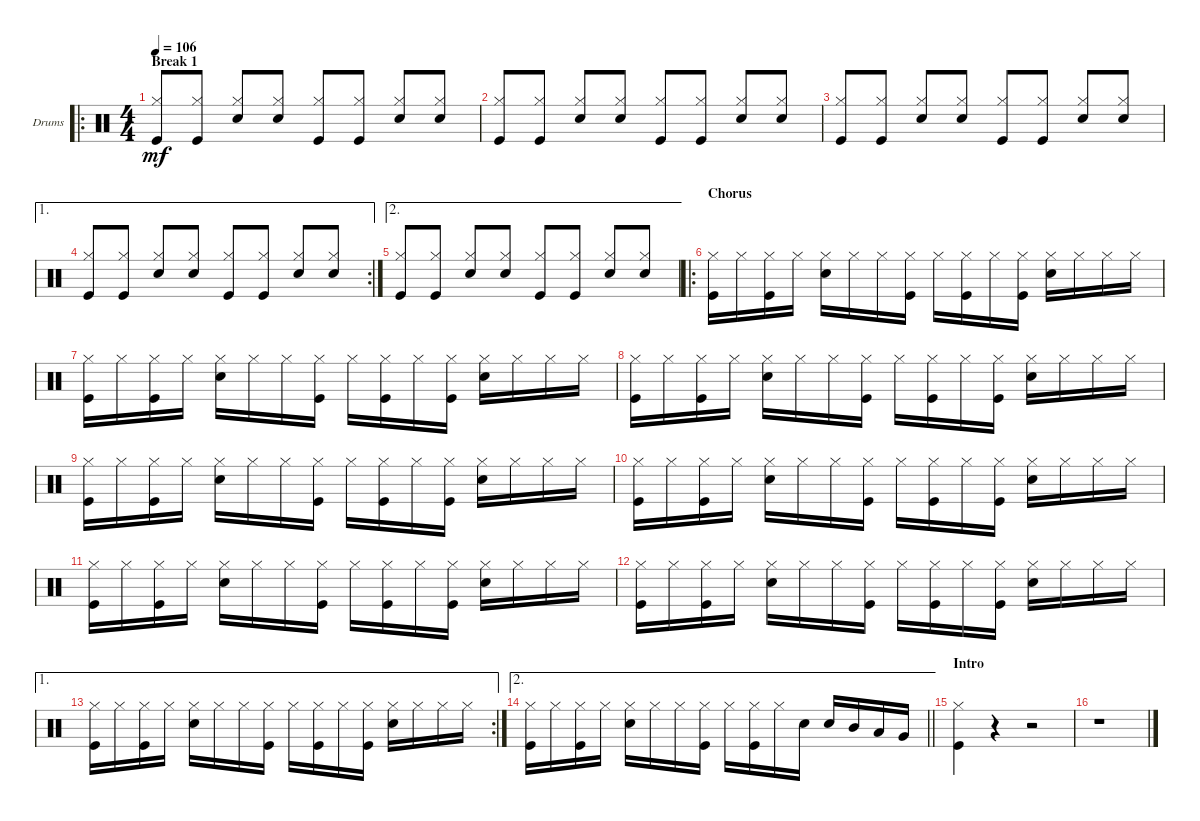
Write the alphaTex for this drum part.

\defaultSystemsLayout 4
\bracketExtendMode groupsimilarinstruments
\firstSystemTrackNameOrientation horizontal
\otherSystemsTrackNameOrientation horizontal
\track ("Drums" "Drums") {instrument percussion}
\staff {score}
\articulation defaults
\ro
\ts (4 4)
\section ("" "Break 1")
\tempo 106
\clef neutral
\ks c
("Hi-Hat (closed)" "Kick (hit)").8{dy mf beam invert} ("Hi-Hat (closed)" "Kick (hit)").8 ("Hi-Hat (closed)" "Snare (hit) 2").8{beam invert} ("Hi-Hat (closed)" "Snare (hit) 2").8 ("Hi-Hat (closed)" "Kick (hit)").8{beam invert} ("Hi-Hat (closed)" "Kick (hit)").8 ("Hi-Hat (closed)" "Snare (hit) 2").8{beam invert} ("Hi-Hat (closed)" "Snare (hit) 2").8 |
("Hi-Hat (closed)" "Kick (hit)").8{beam invert} ("Hi-Hat (closed)" "Kick (hit)").8 ("Hi-Hat (closed)" "Snare (hit) 2").8{beam invert} ("Hi-Hat (closed)" "Snare (hit) 2").8 ("Hi-Hat (closed)" "Kick (hit)").8{beam invert} ("Hi-Hat (closed)" "Kick (hit)").8 ("Hi-Hat (closed)" "Snare (hit) 2").8{beam invert} ("Hi-Hat (closed)" "Snare (hit) 2").8 |
("Hi-Hat (closed)" "Kick (hit)").8{beam invert} ("Hi-Hat (closed)" "Kick (hit)").8 ("Hi-Hat (closed)" "Snare (hit) 2").8{beam invert} ("Hi-Hat (closed)" "Snare (hit) 2").8 ("Hi-Hat (closed)" "Kick (hit)").8{beam invert} ("Hi-Hat (closed)" "Kick (hit)").8 ("Hi-Hat (closed)" "Snare (hit) 2").8{beam invert} ("Hi-Hat (closed)" "Snare (hit) 2").8 |
\ae 1
\rc 2
("Hi-Hat (closed)" "Kick (hit)").8{beam invert} ("Hi-Hat (closed)" "Kick (hit)").8 ("Hi-Hat (closed)" "Snare (hit) 2").8{beam invert} ("Hi-Hat (closed)" "Snare (hit) 2").8 ("Hi-Hat (closed)" "Kick (hit)").8{beam invert} ("Hi-Hat (closed)" "Kick (hit)").8 ("Hi-Hat (closed)" "Snare (hit) 2").8{beam invert} ("Hi-Hat (closed)" "Snare (hit) 2").8 |
\ae 2
("Hi-Hat (closed)" "Kick (hit)").8{beam invert} ("Hi-Hat (closed)" "Kick (hit)").8 ("Hi-Hat (closed)" "Snare (hit) 2").8{beam invert} ("Hi-Hat (closed)" "Snare (hit) 2").8 ("Hi-Hat (closed)" "Kick (hit)").8{beam invert} ("Hi-Hat (closed)" "Kick (hit)").8 ("Hi-Hat (closed)" "Snare (hit) 2").8{beam invert} ("Hi-Hat (closed)" "Snare (hit) 2").8 |
\ro
\section ("" "Chorus")
("Kick (hit)" "Hi-Hat (closed)").16 "Hi-Hat (closed)".16 ("Kick (hit)" "Hi-Hat (closed)").16 "Hi-Hat (closed)".16 ("Snare (hit) 2" "Hi-Hat (closed)").16 "Hi-Hat (closed)".16 "Hi-Hat (closed)".16 ("Kick (hit)" "Hi-Hat (closed)").16 "Hi-Hat (closed)".16 ("Kick (hit)" "Hi-Hat (closed)").16 "Hi-Hat (closed)".16 ("Kick (hit)" "Hi-Hat (closed)").16 ("Snare (hit) 2" "Hi-Hat (closed)").16 "Hi-Hat (closed)".16 "Hi-Hat (closed)".16 "Hi-Hat (closed)".16 |
("Kick (hit)" "Hi-Hat (closed)").16 "Hi-Hat (closed)".16 ("Kick (hit)" "Hi-Hat (closed)").16 "Hi-Hat (closed)".16 ("Snare (hit) 2" "Hi-Hat (closed)").16 "Hi-Hat (closed)".16 "Hi-Hat (closed)".16 ("Kick (hit)" "Hi-Hat (closed)").16 "Hi-Hat (closed)".16 ("Kick (hit)" "Hi-Hat (closed)").16 "Hi-Hat (closed)".16 ("Kick (hit)" "Hi-Hat (closed)").16 ("Snare (hit) 2" "Hi-Hat (closed)").16 "Hi-Hat (closed)".16 "Hi-Hat (closed)".16 "Hi-Hat (closed)".16 |
("Kick (hit)" "Hi-Hat (closed)").16 "Hi-Hat (closed)".16 ("Kick (hit)" "Hi-Hat (closed)").16 "Hi-Hat (closed)".16 ("Snare (hit) 2" "Hi-Hat (closed)").16 "Hi-Hat (closed)".16 "Hi-Hat (closed)".16 ("Kick (hit)" "Hi-Hat (closed)").16 "Hi-Hat (closed)".16 ("Kick (hit)" "Hi-Hat (closed)").16 "Hi-Hat (closed)".16 ("Kick (hit)" "Hi-Hat (closed)").16 ("Snare (hit) 2" "Hi-Hat (closed)").16 "Hi-Hat (closed)".16 "Hi-Hat (closed)".16 "Hi-Hat (closed)".16 |
("Kick (hit)" "Hi-Hat (closed)").16 "Hi-Hat (closed)".16 ("Kick (hit)" "Hi-Hat (closed)").16 "Hi-Hat (closed)".16 ("Snare (hit) 2" "Hi-Hat (closed)").16 "Hi-Hat (closed)".16 "Hi-Hat (closed)".16 ("Kick (hit)" "Hi-Hat (closed)").16 "Hi-Hat (closed)".16 ("Kick (hit)" "Hi-Hat (closed)").16 "Hi-Hat (closed)".16 ("Kick (hit)" "Hi-Hat (closed)").16 ("Snare (hit) 2" "Hi-Hat (closed)").16 "Hi-Hat (closed)".16 "Hi-Hat (closed)".16 "Hi-Hat (closed)".16 |
("Kick (hit)" "Hi-Hat (closed)").16 "Hi-Hat (closed)".16 ("Kick (hit)" "Hi-Hat (closed)").16 "Hi-Hat (closed)".16 ("Snare (hit) 2" "Hi-Hat (closed)").16 "Hi-Hat (closed)".16 "Hi-Hat (closed)".16 ("Kick (hit)" "Hi-Hat (closed)").16 "Hi-Hat (closed)".16 ("Kick (hit)" "Hi-Hat (closed)").16 "Hi-Hat (closed)".16 ("Kick (hit)" "Hi-Hat (closed)").16 ("Snare (hit) 2" "Hi-Hat (closed)").16 "Hi-Hat (closed)".16 "Hi-Hat (closed)".16 "Hi-Hat (closed)".16 |
("Kick (hit)" "Hi-Hat (closed)").16 "Hi-Hat (closed)".16 ("Kick (hit)" "Hi-Hat (closed)").16 "Hi-Hat (closed)".16 ("Snare (hit) 2" "Hi-Hat (closed)").16 "Hi-Hat (closed)".16 "Hi-Hat (closed)".16 ("Kick (hit)" "Hi-Hat (closed)").16 "Hi-Hat (closed)".16 ("Kick (hit)" "Hi-Hat (closed)").16 "Hi-Hat (closed)".16 ("Kick (hit)" "Hi-Hat (closed)").16 ("Snare (hit) 2" "Hi-Hat (closed)").16 "Hi-Hat (closed)".16 "Hi-Hat (closed)".16 "Hi-Hat (closed)".16 |
("Kick (hit)" "Hi-Hat (closed)").16 "Hi-Hat (closed)".16 ("Kick (hit)" "Hi-Hat (closed)").16 "Hi-Hat (closed)".16 ("Snare (hit) 2" "Hi-Hat (closed)").16 "Hi-Hat (closed)".16 "Hi-Hat (closed)".16 ("Kick (hit)" "Hi-Hat (closed)").16 "Hi-Hat (closed)".16 ("Kick (hit)" "Hi-Hat (closed)").16 "Hi-Hat (closed)".16 ("Kick (hit)" "Hi-Hat (closed)").16 ("Snare (hit) 2" "Hi-Hat (closed)").16 "Hi-Hat (closed)".16 "Hi-Hat (closed)".16 "Hi-Hat (closed)".16 |
\ae 1
\rc 2
("Kick (hit)" "Hi-Hat (closed)").16 "Hi-Hat (closed)".16 ("Kick (hit)" "Hi-Hat (closed)").16 "Hi-Hat (closed)".16 ("Snare (hit) 2" "Hi-Hat (closed)").16 "Hi-Hat (closed)".16 "Hi-Hat (closed)".16 ("Kick (hit)" "Hi-Hat (closed)").16 "Hi-Hat (closed)".16 ("Kick (hit)" "Hi-Hat (closed)").16 "Hi-Hat (closed)".16 ("Kick (hit)" "Hi-Hat (closed)").16 ("Snare (hit) 2" "Hi-Hat (closed)").16 "Hi-Hat (closed)".16 "Hi-Hat (closed)".16 "Hi-Hat (closed)".16 |
\ae 2
\barLineRight lightlight
("Kick (hit)" "Hi-Hat (closed)").16 "Hi-Hat (closed)".16 ("Kick (hit)" "Hi-Hat (closed)").16 "Hi-Hat (closed)".16 ("Snare (hit) 2" "Hi-Hat (closed)").16 "Hi-Hat (closed)".16 "Hi-Hat (closed)".16 ("Kick (hit)" "Hi-Hat (closed)").16 "Hi-Hat (closed)".16 ("Kick (hit)" "Hi-Hat (closed)").16 "Hi-Hat (closed)".16 "Snare (hit) 2".16 "Snare (hit) 2".16 "Mid Tom (hit)".16 "Low Tom (hit)".16 "Very Low Tom (hit)".16 |
\section ("" "Intro")
("Kick (hit)" "Hi-Hat (closed)").4 r.4 r.2 |
r.1
